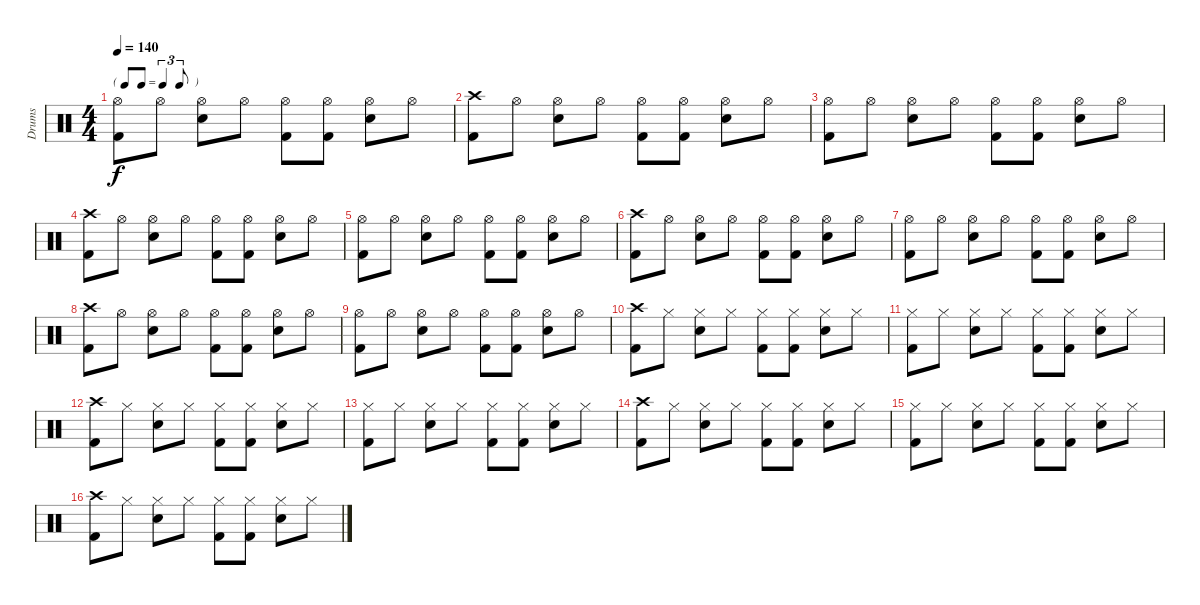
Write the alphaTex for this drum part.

\track ("Drums" "Drums") {instrument percussion}
\staff {score}
\articulation defaults
\ts (4 4)
\tf triplet8th
\tempo 140
\clef neutral
\ks c
("Hi-Hat (open)" "Kick (hit) 2").8{dy f} "Hi-Hat (open)".8 ("Hi-Hat (open)" "Electric Snare (hit)").8 "Hi-Hat (open)".8 ("Hi-Hat (open)" "Kick (hit) 2").8 ("Hi-Hat (open)" "Kick (hit) 2").8 ("Hi-Hat (open)" "Electric Snare (hit)").8 "Hi-Hat (open)".8 |
("Crash high (hit)" "Kick (hit) 2").8 "Hi-Hat (open)".8 ("Hi-Hat (open)" "Electric Snare (hit)").8 "Hi-Hat (open)".8 ("Hi-Hat (open)" "Kick (hit) 2").8 ("Hi-Hat (open)" "Kick (hit) 2").8 ("Hi-Hat (open)" "Electric Snare (hit)").8 "Hi-Hat (open)".8 |
("Hi-Hat (open)" "Kick (hit) 2").8 "Hi-Hat (open)".8 ("Hi-Hat (open)" "Electric Snare (hit)").8 "Hi-Hat (open)".8 ("Hi-Hat (open)" "Kick (hit) 2").8 ("Hi-Hat (open)" "Kick (hit) 2").8 ("Hi-Hat (open)" "Electric Snare (hit)").8 "Hi-Hat (open)".8 |
("Crash high (hit)" "Kick (hit) 2").8 "Hi-Hat (open)".8 ("Hi-Hat (open)" "Electric Snare (hit)").8 "Hi-Hat (open)".8 ("Hi-Hat (open)" "Kick (hit) 2").8 ("Hi-Hat (open)" "Kick (hit) 2").8 ("Hi-Hat (open)" "Electric Snare (hit)").8 "Hi-Hat (open)".8 |
("Hi-Hat (open)" "Kick (hit) 2").8 "Hi-Hat (open)".8 ("Hi-Hat (open)" "Electric Snare (hit)").8 "Hi-Hat (open)".8 ("Hi-Hat (open)" "Kick (hit) 2").8 ("Hi-Hat (open)" "Kick (hit) 2").8 ("Hi-Hat (open)" "Electric Snare (hit)").8 "Hi-Hat (open)".8 |
("Crash high (hit)" "Kick (hit) 2").8 "Hi-Hat (open)".8 ("Hi-Hat (open)" "Electric Snare (hit)").8 "Hi-Hat (open)".8 ("Hi-Hat (open)" "Kick (hit) 2").8 ("Hi-Hat (open)" "Kick (hit) 2").8 ("Hi-Hat (open)" "Electric Snare (hit)").8 "Hi-Hat (open)".8 |
("Hi-Hat (open)" "Kick (hit) 2").8 "Hi-Hat (open)".8 ("Hi-Hat (open)" "Electric Snare (hit)").8 "Hi-Hat (open)".8 ("Hi-Hat (open)" "Kick (hit) 2").8 ("Hi-Hat (open)" "Kick (hit) 2").8 ("Hi-Hat (open)" "Electric Snare (hit)").8 "Hi-Hat (open)".8 |
("Crash high (hit)" "Kick (hit) 2").8 "Hi-Hat (open)".8 ("Hi-Hat (open)" "Electric Snare (hit)").8 "Hi-Hat (open)".8 ("Hi-Hat (open)" "Kick (hit) 2").8 ("Hi-Hat (open)" "Kick (hit) 2").8 ("Hi-Hat (open)" "Electric Snare (hit)").8 "Hi-Hat (open)".8 |
("Hi-Hat (open)" "Kick (hit) 2").8 "Hi-Hat (open)".8 ("Hi-Hat (open)" "Electric Snare (hit)").8 "Hi-Hat (open)".8 ("Hi-Hat (open)" "Kick (hit) 2").8 ("Hi-Hat (open)" "Kick (hit) 2").8 ("Hi-Hat (open)" "Electric Snare (hit)").8 "Hi-Hat (open)".8 |
("Crash high (hit)" "Kick (hit) 2").8 "Hi-Hat (closed)".8 ("Hi-Hat (closed)" "Electric Snare (hit)").8 "Hi-Hat (closed)".8 ("Hi-Hat (closed)" "Kick (hit) 2").8 ("Hi-Hat (closed)" "Kick (hit) 2").8 ("Hi-Hat (closed)" "Electric Snare (hit)").8 "Hi-Hat (closed)".8 |
("Hi-Hat (closed)" "Kick (hit) 2").8 "Hi-Hat (closed)".8 ("Hi-Hat (closed)" "Electric Snare (hit)").8 "Hi-Hat (closed)".8 ("Hi-Hat (closed)" "Kick (hit) 2").8 ("Hi-Hat (closed)" "Kick (hit) 2").8 ("Hi-Hat (closed)" "Electric Snare (hit)").8 "Hi-Hat (closed)".8 |
("Crash high (hit)" "Kick (hit) 2").8 "Hi-Hat (closed)".8 ("Hi-Hat (closed)" "Electric Snare (hit)").8 "Hi-Hat (closed)".8 ("Hi-Hat (closed)" "Kick (hit) 2").8 ("Hi-Hat (closed)" "Kick (hit) 2").8 ("Hi-Hat (closed)" "Electric Snare (hit)").8 "Hi-Hat (closed)".8 |
("Hi-Hat (closed)" "Kick (hit) 2").8 "Hi-Hat (closed)".8 ("Hi-Hat (closed)" "Electric Snare (hit)").8 "Hi-Hat (closed)".8 ("Hi-Hat (closed)" "Kick (hit) 2").8 ("Hi-Hat (closed)" "Kick (hit) 2").8 ("Hi-Hat (closed)" "Electric Snare (hit)").8 "Hi-Hat (closed)".8 |
("Crash high (hit)" "Kick (hit) 2").8 "Hi-Hat (closed)".8 ("Hi-Hat (closed)" "Electric Snare (hit)").8 "Hi-Hat (closed)".8 ("Hi-Hat (closed)" "Kick (hit) 2").8 ("Hi-Hat (closed)" "Kick (hit) 2").8 ("Hi-Hat (closed)" "Electric Snare (hit)").8 "Hi-Hat (closed)".8 |
("Hi-Hat (closed)" "Kick (hit) 2").8 "Hi-Hat (closed)".8 ("Hi-Hat (closed)" "Electric Snare (hit)").8 "Hi-Hat (closed)".8 ("Hi-Hat (closed)" "Kick (hit) 2").8 ("Hi-Hat (closed)" "Kick (hit) 2").8 ("Hi-Hat (closed)" "Electric Snare (hit)").8 "Hi-Hat (closed)".8 |
("Crash high (hit)" "Kick (hit) 2").8 "Hi-Hat (closed)".8 ("Hi-Hat (closed)" "Electric Snare (hit)").8 "Hi-Hat (closed)".8 ("Hi-Hat (closed)" "Kick (hit) 2").8 ("Hi-Hat (closed)" "Kick (hit) 2").8 ("Hi-Hat (closed)" "Electric Snare (hit)").8 "Hi-Hat (closed)".8
